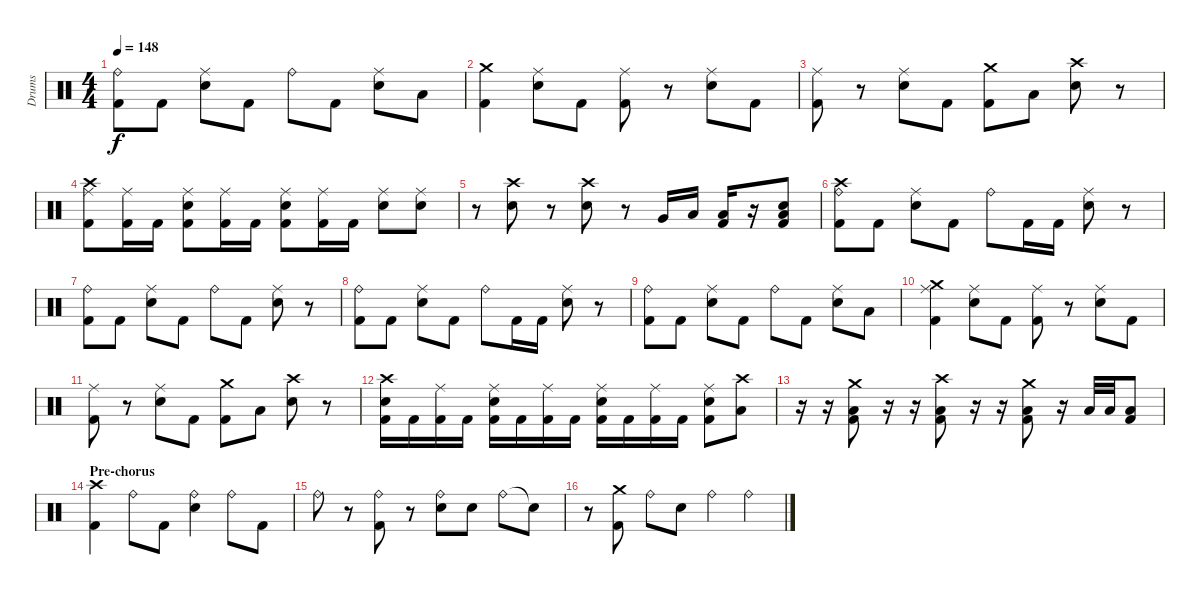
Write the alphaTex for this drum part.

\track ("Drums" "Drums") {instrument percussion}
\staff {score}
\articulation defaults
\ts (4 4)
\tempo 148
\clef neutral
\ks c
("Kick (hit) 2" "Ride (bell)").8{dy f} "Kick (hit) 2".8 ("Electric Snare (hit)" "Ride (middle)").8 "Kick (hit) 2".8 "Ride (bell)".8 "Kick (hit) 2".8 ("Electric Snare (hit)" "Ride (middle)").8 "Low Floor Tom (hit)".8 |
("Kick (hit) 2" "Crash medium (hit)").4 ("Electric Snare (hit)" "Ride (middle)").8 "Kick (hit) 2".8 ("Kick (hit) 2" "Ride (middle)").8 r.8 ("Electric Snare (hit)" "Ride (middle)").8 "Kick (hit) 2".8 |
("Kick (hit) 2" "Ride (middle)").8 r.8 ("Electric Snare (hit)" "Ride (middle)").8 "Kick (hit) 2".8 ("Kick (hit) 2" "Crash medium (hit)").8 "Low Tom (hit)".8 ("Electric Snare (hit)" "Crash high (hit)").8 r.8 |
("Kick (hit) 2" "Ride (middle)" "Crash high (hit)").8 ("Kick (hit) 2" "Ride (middle)").16 "Kick (hit) 2".16 ("Kick (hit) 2" "Electric Snare (hit)" "Ride (middle)").8 ("Kick (hit) 2" "Ride (middle)").16 "Kick (hit) 2".16 ("Kick (hit) 2" "Electric Snare (hit)" "Ride (middle)").8 ("Kick (hit) 2" "Ride (middle)").16 "Kick (hit) 2".16 ("Electric Snare (hit)" "Ride (middle)").8 ("Electric Snare (hit)" "Ride (middle)").8 |
r.8 ("Electric Snare (hit)" "Crash high (hit)").8 r.8 ("Electric Snare (hit)" "Crash high (hit)").8 r.8 "Very Low Tom (hit)".16 "Low Tom (hit)".16 ("Kick (hit) 2" "Low Tom (hit)").16 r.16 ("Kick (hit) 2" "Electric Snare (hit)" "Low Floor Tom (hit)").8 |
("Kick (hit) 2" "Ride (bell)" "Crash high (hit)").8 "Kick (hit) 2".8 ("Electric Snare (hit)" "Ride (middle)").8 "Kick (hit) 2".8 "Ride (bell)".8 "Kick (hit) 2".16 "Kick (hit) 2".16 ("Electric Snare (hit)" "Ride (middle)").8 r.8 |
("Kick (hit) 2" "Ride (bell)").8 "Kick (hit) 2".8 ("Electric Snare (hit)" "Ride (middle)").8 "Kick (hit) 2".8 "Ride (bell)".8 "Kick (hit) 2".8 ("Electric Snare (hit)" "Ride (middle)").8 r.8 |
("Kick (hit) 2" "Ride (bell)").8 "Kick (hit) 2".8 ("Electric Snare (hit)" "Ride (middle)").8 "Kick (hit) 2".8 "Ride (bell)".8 "Kick (hit) 2".16 "Kick (hit) 2".16 ("Electric Snare (hit)" "Ride (middle)").8 r.8 |
("Kick (hit) 2" "Ride (bell)").8 "Kick (hit) 2".8 ("Electric Snare (hit)" "Ride (middle)").8 "Kick (hit) 2".8 "Ride (bell)".8 "Kick (hit) 2".8 ("Electric Snare (hit)" "Ride (middle)").8 "Low Floor Tom (hit)".8 |
("Kick (hit) 2" "Ride (middle)" "Crash medium (hit)").4 ("Electric Snare (hit)" "Ride (middle)").8 "Kick (hit) 2".8 ("Kick (hit) 2" "Ride (middle)").8 r.8 ("Electric Snare (hit)" "Ride (middle)").8 "Kick (hit) 2".8 |
("Kick (hit) 2" "Ride (middle)").8 r.8 ("Electric Snare (hit)" "Ride (middle)").8 "Kick (hit) 2".8 ("Kick (hit) 2" "Crash medium (hit)").8 "Low Tom (hit)".8 ("Electric Snare (hit)" "Crash high (hit)").8 r.8 |
("Kick (hit) 2" "Electric Snare (hit)" "Crash high (hit)").16 "Kick (hit) 2".16 ("Kick (hit) 2" "Ride (middle)").16 "Kick (hit) 2".16 ("Kick (hit) 2" "Electric Snare (hit)" "Ride (middle)").16 "Kick (hit) 2".16 ("Kick (hit) 2" "Ride (middle)").16 "Kick (hit) 2".16 ("Kick (hit) 2" "Electric Snare (hit)" "Ride (middle)").16 "Kick (hit) 2".16 ("Kick (hit) 2" "Ride (middle)").16 "Kick (hit) 2".16 ("Kick (hit) 2" "Electric Snare (hit)" "Ride (middle)").8 ("Low Floor Tom (hit)" "Crash high (hit)").8 |
r.16 r.16 ("Kick (hit) 2" "Low Floor Tom (hit)" "Crash medium (hit)").8 r.16 r.16 ("Kick (hit) 2" "Low Floor Tom (hit)" "Crash high (hit)").8 r.16 r.16 ("Kick (hit) 2" "Low Floor Tom (hit)" "Crash medium (hit)").8 r.16 "Low Tom (hit)".32 "Low Tom (hit)".32 ("Kick (hit) 2" "Low Floor Tom (hit)").8 |
\section ("" "Pre-chorus")
("Kick (hit) 2" "Crash high (hit)").4 "Ride (bell)".8 "Kick (hit) 2".8 ("Electric Snare (hit)" "Ride (bell)").4 "Ride (bell)".8 "Kick (hit) 2".8 |
"Ride (bell)".8 r.8 ("Kick (hit) 2" "Ride (bell)").8 r.8 ("Electric Snare (hit)" "Ride (bell)").8 "Electric Snare (hit)".8 "Ride (bell)".8 "Snare (hit)"{t}.8 |
r.8 ("Kick (hit) 2" "Crash medium (hit)").8 "Ride (bell)".8 "Electric Snare (hit)".8 "Ride (bell)".4 "Ride (bell)".4
